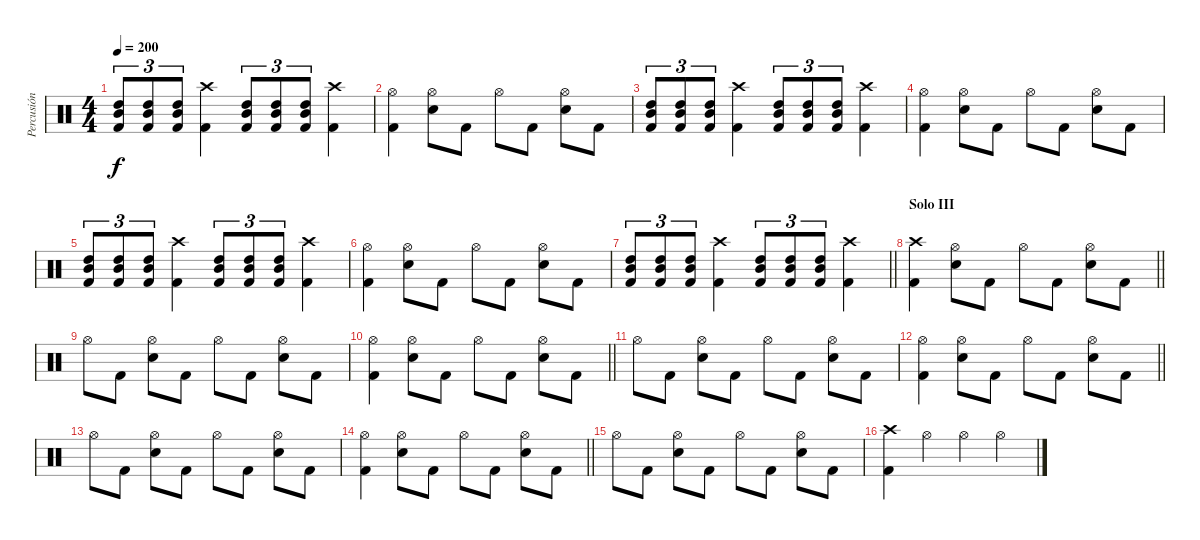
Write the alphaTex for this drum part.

\track ("Percusión" "Percusión") {instrument percussion}
\staff {score}
\articulation defaults
\ts (4 4)
\tempo 200
\clef neutral
\ks c
("High Tom (hit)" "Mid Tom (hit)" "Kick (hit) 2").8{tu (3 2) dy f} ("High Tom (hit)" "Mid Tom (hit)" "Kick (hit) 2").8{tu (3 2)} ("High Tom (hit)" "Mid Tom (hit)" "Kick (hit) 2").8{tu (3 2)} ("Crash high (hit)" "Kick (hit) 2").4 ("High Tom (hit)" "Mid Tom (hit)" "Kick (hit) 2").8{tu (3 2)} ("High Tom (hit)" "Mid Tom (hit)" "Kick (hit) 2").8{tu (3 2)} ("High Tom (hit)" "Mid Tom (hit)" "Kick (hit) 2").8{tu (3 2)} ("Crash high (hit)" "Kick (hit) 2").4 |
("Hi-Hat (open)" "Kick (hit) 2").4 ("Hi-Hat (open)" "Electric Snare (hit)").8 "Kick (hit) 2".8 "Hi-Hat (open)".8 "Kick (hit) 2".8 ("Hi-Hat (open)" "Electric Snare (hit)").8 "Kick (hit) 2".8 |
("High Tom (hit)" "Mid Tom (hit)" "Kick (hit) 2").8{tu (3 2)} ("High Tom (hit)" "Mid Tom (hit)" "Kick (hit) 2").8{tu (3 2)} ("High Tom (hit)" "Mid Tom (hit)" "Kick (hit) 2").8{tu (3 2)} ("Crash high (hit)" "Kick (hit) 2").4 ("High Tom (hit)" "Mid Tom (hit)" "Kick (hit) 2").8{tu (3 2)} ("High Tom (hit)" "Mid Tom (hit)" "Kick (hit) 2").8{tu (3 2)} ("High Tom (hit)" "Mid Tom (hit)" "Kick (hit) 2").8{tu (3 2)} ("Crash high (hit)" "Kick (hit) 2").4 |
("Hi-Hat (open)" "Kick (hit) 2").4 ("Hi-Hat (open)" "Electric Snare (hit)").8 "Kick (hit) 2".8 "Hi-Hat (open)".8 "Kick (hit) 2".8 ("Hi-Hat (open)" "Electric Snare (hit)").8 "Kick (hit) 2".8 |
("High Tom (hit)" "Mid Tom (hit)" "Kick (hit) 2").8{tu (3 2)} ("High Tom (hit)" "Mid Tom (hit)" "Kick (hit) 2").8{tu (3 2)} ("High Tom (hit)" "Mid Tom (hit)" "Kick (hit) 2").8{tu (3 2)} ("Crash high (hit)" "Kick (hit) 2").4 ("High Tom (hit)" "Mid Tom (hit)" "Kick (hit) 2").8{tu (3 2)} ("High Tom (hit)" "Mid Tom (hit)" "Kick (hit) 2").8{tu (3 2)} ("High Tom (hit)" "Mid Tom (hit)" "Kick (hit) 2").8{tu (3 2)} ("Crash high (hit)" "Kick (hit) 2").4 |
("Hi-Hat (open)" "Kick (hit) 2").4 ("Hi-Hat (open)" "Electric Snare (hit)").8 "Kick (hit) 2".8 "Hi-Hat (open)".8 "Kick (hit) 2".8 ("Hi-Hat (open)" "Electric Snare (hit)").8 "Kick (hit) 2".8 |
\barLineRight lightlight
("High Tom (hit)" "Mid Tom (hit)" "Kick (hit) 2").8{tu (3 2)} ("High Tom (hit)" "Mid Tom (hit)" "Kick (hit) 2").8{tu (3 2)} ("High Tom (hit)" "Mid Tom (hit)" "Kick (hit) 2").8{tu (3 2)} ("Crash high (hit)" "Kick (hit) 2").4 ("High Tom (hit)" "Mid Tom (hit)" "Kick (hit) 2").8{tu (3 2)} ("High Tom (hit)" "Mid Tom (hit)" "Kick (hit) 2").8{tu (3 2)} ("High Tom (hit)" "Mid Tom (hit)" "Kick (hit) 2").8{tu (3 2)} ("Crash high (hit)" "Kick (hit) 2").4 |
\section ("" "Solo III")
\barLineRight lightlight
("Crash high (hit)" "Kick (hit) 2").4 ("Hi-Hat (open)" "Electric Snare (hit)").8 "Kick (hit) 2".8 "Hi-Hat (open)".8 "Kick (hit) 2".8 ("Hi-Hat (open)" "Electric Snare (hit)").8 "Kick (hit) 2".8 |
"Hi-Hat (open)".8 "Kick (hit) 2".8 ("Hi-Hat (open)" "Electric Snare (hit)").8 "Kick (hit) 2".8 "Hi-Hat (open)".8 "Kick (hit) 2".8 ("Hi-Hat (open)" "Electric Snare (hit)").8 "Kick (hit) 2".8 |
\barLineRight lightlight
("Hi-Hat (open)" "Kick (hit) 2").4 ("Hi-Hat (open)" "Electric Snare (hit)").8 "Kick (hit) 2".8 "Hi-Hat (open)".8 "Kick (hit) 2".8 ("Hi-Hat (open)" "Electric Snare (hit)").8 "Kick (hit) 2".8 |
"Hi-Hat (open)".8 "Kick (hit) 2".8 ("Hi-Hat (open)" "Electric Snare (hit)").8 "Kick (hit) 2".8 "Hi-Hat (open)".8 "Kick (hit) 2".8 ("Hi-Hat (open)" "Electric Snare (hit)").8 "Kick (hit) 2".8 |
\barLineRight lightlight
("Hi-Hat (open)" "Kick (hit) 2").4 ("Hi-Hat (open)" "Electric Snare (hit)").8 "Kick (hit) 2".8 "Hi-Hat (open)".8 "Kick (hit) 2".8 ("Hi-Hat (open)" "Electric Snare (hit)").8 "Kick (hit) 2".8 |
"Hi-Hat (open)".8 "Kick (hit) 2".8 ("Hi-Hat (open)" "Electric Snare (hit)").8 "Kick (hit) 2".8 "Hi-Hat (open)".8 "Kick (hit) 2".8 ("Hi-Hat (open)" "Electric Snare (hit)").8 "Kick (hit) 2".8 |
\barLineRight lightlight
("Hi-Hat (open)" "Kick (hit) 2").4 ("Hi-Hat (open)" "Electric Snare (hit)").8 "Kick (hit) 2".8 "Hi-Hat (open)".8 "Kick (hit) 2".8 ("Hi-Hat (open)" "Electric Snare (hit)").8 "Kick (hit) 2".8 |
"Hi-Hat (open)".8 "Kick (hit) 2".8 ("Hi-Hat (open)" "Electric Snare (hit)").8 "Kick (hit) 2".8 "Hi-Hat (open)".8 "Kick (hit) 2".8 ("Hi-Hat (open)" "Electric Snare (hit)").8 "Kick (hit) 2".8 |
("Crash high (hit)" "Kick (hit) 2").4 "Hi-Hat (open)".4 "Hi-Hat (open)".4 "Hi-Hat (open)".4
